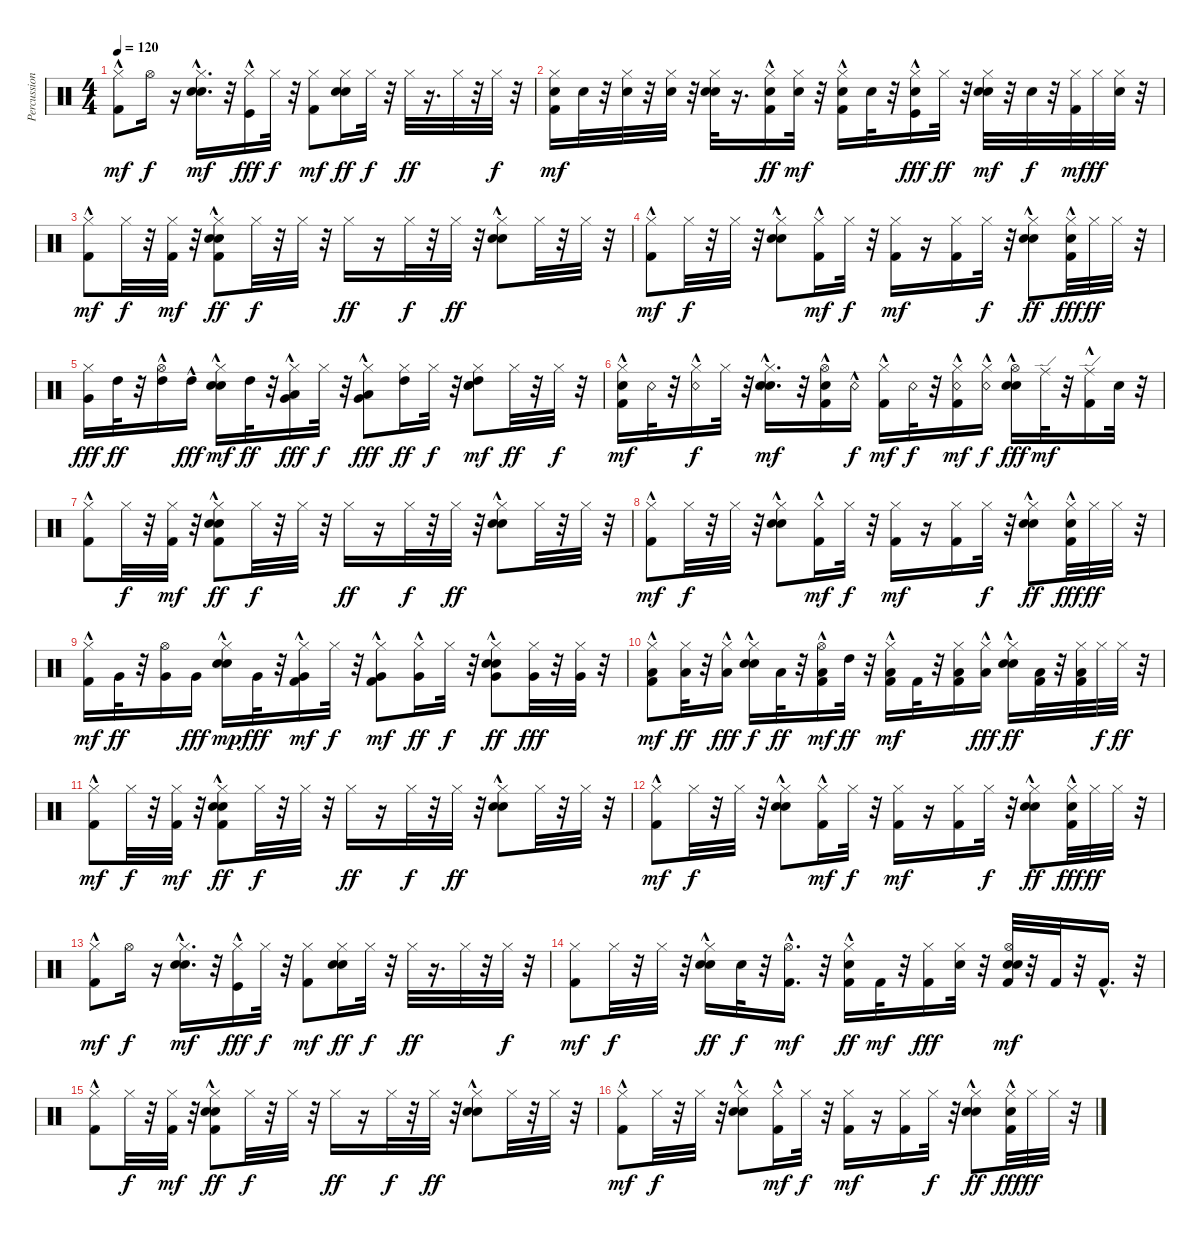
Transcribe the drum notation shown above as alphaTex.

\track ("Percussion" "Percussion") {instrument percussion}
\staff {score}
\articulation defaults
\ts (4 4)
\tempo 120
\clef neutral
\ks c
("Kick (hit) 2" "Hi-Hat (closed)"{hac}).8{dy mf} "Hi-Hat (open)".16{dy f} r.16 ("Hand Clap (hit)"{hac} "Snare (hit) 2"{hac} "Hi-Hat (closed)").16{d dy mf} r.32 ("Kick (hit)"{hac} "Hi-Hat (closed)").16{dy fff} "Hi-Hat (closed)".32{dy f} r.32 ("Hi-Hat (closed)" "Kick (hit) 2").8{dy mf} ("Hand Clap (hit)" "Snare (hit) 2" "Hi-Hat (closed)").16{dy ff} "Hi-Hat (closed)".32{dy f} r.32 "Hi-Hat (closed)".32{dy ff} r.16{d} "Hi-Hat (closed)".32 r.32 "Hi-Hat (closed)".32{dy f} r.32 |
("Hi-Hat (closed)" "Kick (hit) 2" "Electric Snare (hit)").16{dy mf} "Electric Snare (hit)".32 r.32 ("Electric Snare (hit)" "Hi-Hat (closed)").32 r.32 ("Electric Snare (hit)" "Hi-Hat (closed)").32 r.32 ("Electric Snare (hit)" "Hi-Hat (closed)" "Hand Clap (hit)").32 r.16{d} ("Kick (hit) 2"{hac} "Hi-Hat (closed)" "Electric Snare (hit)").16{dy ff} ("Hi-Hat (closed)" "Electric Snare (hit)").32{dy mf} r.32 ("Hi-Hat (closed)" "Kick (hit) 2"{hac} "Electric Snare (hit)").16 "Electric Snare (hit)".32 r.32 ("Kick (hit)"{hac} "Electric Snare (hit)" "Hi-Hat (closed)").16{dy fff} "Hi-Hat (closed)".32{dy ff} r.32 ("Hand Clap (hit)" "Hi-Hat (closed)" "Electric Snare (hit)").32{dy mf} r.32 "Electric Snare (hit)".32{dy f} r.32 ("Hi-Hat (closed)" "Kick (hit) 2").32{dy mf} "Hi-Hat (closed)".32{dy ff} ("Hi-Hat (closed)" "Electric Snare (hit)").32 r.32 |
("Hi-Hat (closed)"{hac} "Kick (hit) 2").8{dy mf} "Hi-Hat (closed)".32{dy f} r.32 ("Kick (hit) 2" "Hi-Hat (closed)").32{dy mf} r.32 ("Kick (hit) 2"{hac} "Hi-Hat (closed)"{hac} "Hand Clap (hit)"{hac} "Snare (hit) 2"{hac}).8{dy ff} "Hi-Hat (closed)".32{dy f} r.32 "Hi-Hat (closed)".32 r.32 "Hi-Hat (closed)".16{dy ff} r.16 "Hi-Hat (closed)".32{dy f} r.32 "Hi-Hat (closed)".32{dy ff} r.32 ("Hi-Hat (closed)" "Hand Clap (hit)"{hac} "Snare (hit) 2"{hac}).8 "Hi-Hat (closed)".32 r.32 "Hi-Hat (closed)".32 r.32 |
("Hi-Hat (closed)"{hac} "Kick (hit) 2").8{dy mf} "Hi-Hat (closed)".32{dy f} r.32 "Hi-Hat (closed)".32 r.32 ("Hi-Hat (closed)" "Hand Clap (hit)"{hac} "Snare (hit) 2"{hac}).8 ("Kick (hit) 2"{hac} "Hi-Hat (closed)").16{dy mf} "Hi-Hat (closed)".32{dy f} r.32 ("Hi-Hat (closed)" "Kick (hit) 2").16{dy mf} r.16 ("Kick (hit) 2" "Hi-Hat (closed)").16 "Hi-Hat (closed)".32{dy f} r.32 ("Hi-Hat (closed)" "Hand Clap (hit)"{hac} "Snare (hit) 2"{hac}).8{dy ff} ("Hi-Hat (closed)" "Kick (hit) 2"{hac} "Electric Snare (hit)").32{dy fff} "Hi-Hat (closed)".32{dy ff} "Hi-Hat (closed)".32 r.32 |
("Hi-Hat (closed)" "Very Low Tom (hit)").16{dy fff} "High Tom (hit)".32{dy ff} r.32 ("High Tom (hit)" "Hi-Hat (open)"{hac}).16 "High Tom (hit)"{hac}.16{dy fff} ("Hand Clap (hit)"{hac} "Snare (hit) 2"{hac} "Hi-Hat (closed)").16{dy mf} "High Tom (hit)".32{dy ff} r.32 ("Low Floor Tom (hit)"{hac} "Very Low Tom (hit)" "Hi-Hat (closed)").16{dy fff} "Hi-Hat (closed)".32{dy f} r.32 ("Low Tom (hit)"{hac} "Hi-Hat (closed)" "Very Low Tom (hit)"{hac}).8{dy fff} ("High Tom (hit)" "Hi-Hat (closed)").16{dy ff} "Hi-Hat (closed)".32{dy f} r.32 ("High Tom (hit)" "Electric Snare (hit)" "Hand Clap (hit)" "Hi-Hat (closed)").8{dy mf} "Hi-Hat (closed)".32{dy ff} r.32 "Hi-Hat (closed)".32{dy f} r.32 |
("Snare (hit)" "Kick (hit) 2" "Hi-Hat (closed)"{hac}).16{dy mf} "Snare (rim shot)".32 r.32 ("Hi-Hat (closed)" "Snare (rim shot)"{hac}).16{dy f} "Hi-Hat (closed)".32 r.32 ("Hand Clap (hit)"{hac} "Snare (hit) 2"{hac} "Hi-Hat (closed)"{hac} "Snare (rim shot)"{hac}).16{d dy mf} r.32 ("Kick (hit) 2"{hac} "Hi-Hat (open)" "Snare (hit)").16 "Snare (rim shot)"{hac}.16{dy f} ("Kick (hit) 2"{hac} "Hi-Hat (closed)"{hac}).16{dy mf} "Snare (rim shot)".32{dy f} r.32 ("Kick (hit) 2"{hac} "Snare (rim shot)" "Hi-Hat (closed)").16{dy mf} ("Snare (rim shot)"{hac} "Hi-Hat (closed)").16{dy f} ("Hi-Hat (open)" "Hand Clap (hit)"{hac} "Snare (hit) 2"{hac}).16{dy fff} "Ride (edge)".32{dy mf} r.32 ("Ride (edge)" "Kick (hit) 2"{hac}).16 "Snare (hit)".32 r.32 |
("Hi-Hat (closed)"{hac} "Kick (hit) 2").8 "Hi-Hat (closed)".32{dy f} r.32 ("Kick (hit) 2" "Hi-Hat (closed)").32{dy mf} r.32 ("Kick (hit) 2"{hac} "Hi-Hat (closed)"{hac} "Hand Clap (hit)"{hac} "Snare (hit) 2"{hac}).8{dy ff} "Hi-Hat (closed)".32{dy f} r.32 "Hi-Hat (closed)".32 r.32 "Hi-Hat (closed)".16{dy ff} r.16 "Hi-Hat (closed)".32{dy f} r.32 "Hi-Hat (closed)".32{dy ff} r.32 ("Hi-Hat (closed)" "Hand Clap (hit)"{hac} "Snare (hit) 2"{hac}).8 "Hi-Hat (closed)".32 r.32 "Hi-Hat (closed)".32 r.32 |
("Hi-Hat (closed)"{hac} "Kick (hit) 2").8{dy mf} "Hi-Hat (closed)".32{dy f} r.32 "Hi-Hat (closed)".32 r.32 ("Hi-Hat (closed)" "Hand Clap (hit)"{hac} "Snare (hit) 2"{hac}).8 ("Kick (hit) 2"{hac} "Hi-Hat (closed)").16{dy mf} "Hi-Hat (closed)".32{dy f} r.32 ("Hi-Hat (closed)" "Kick (hit) 2").16{dy mf} r.16 ("Kick (hit) 2" "Hi-Hat (closed)").16 "Hi-Hat (closed)".32{dy f} r.32 ("Hi-Hat (closed)" "Hand Clap (hit)"{hac} "Snare (hit) 2"{hac}).8{dy ff} ("Hi-Hat (closed)" "Kick (hit) 2"{hac} "Electric Snare (hit)").32{dy fff} "Hi-Hat (closed)".32{dy ff} "Hi-Hat (closed)".32 r.32 |
("Hi-Hat (closed)"{hac} "Kick (hit) 2").16{dy mf} "Very Low Tom (hit)".32{dy ff} r.32 ("Very Low Tom (hit)" "Hi-Hat (open)").16 "Very Low Tom (hit)".16{dy fff} ("Snare (hit) 2" "Hand Clap (hit)" "Hi-Hat (closed)"{hac}).16{dy mp} "Very Low Tom (hit)".32{dy fff} r.32 ("Very Low Tom (hit)"{hac} "Kick (hit) 2"{hac} "Hi-Hat (closed)").16{dy mf} "Hi-Hat (closed)".32{dy f} r.32 ("Very Low Tom (hit)"{hac} "Hi-Hat (closed)" "Kick (hit) 2"{hac}).8{dy mf} ("Very Low Tom (hit)"{hac} "Hi-Hat (closed)").16{dy ff} "Hi-Hat (closed)".32{dy f} r.32 ("Very Low Tom (hit)"{hac} "Hand Clap (hit)"{hac} "Electric Snare (hit)"{hac} "Hi-Hat (closed)").8{dy ff} ("Very Low Tom (hit)" "Hi-Hat (closed)").32{dy fff} r.32 ("Very Low Tom (hit)" "Hi-Hat (closed)").32 r.32 |
("Hi-Hat (closed)"{hac} "Low Tom (hit)" "Kick (hit) 2").8{dy mf} ("Low Tom (hit)" "Hi-Hat (closed)").32{dy ff} r.32 ("Low Tom (hit)"{hac} "Hi-Hat (closed)").16{dy fff} ("Hand Clap (hit)"{hac} "Electric Snare (hit)"{hac} "Hi-Hat (closed)"{hac}).16{dy f} "Low Tom (hit)".32{dy ff} r.32 ("Low Floor Tom (hit)" "Kick (hit) 2"{hac} "Hi-Hat (open)").16{dy mf} "High Tom (hit)".32{dy ff} r.32 ("Low Tom (hit)"{hac} "Kick (hit) 2" "Hi-Hat (closed)"{hac}).16{dy mf} "Kick (hit) 2".32 r.32 ("Low Tom (hit)" "Kick (hit) 2" "Hi-Hat (closed)").16 ("Low Tom (hit)"{hac} "Hi-Hat (closed)").16{dy fff} ("Hand Clap (hit)"{hac} "Snare (hit) 2"{hac} "Hi-Hat (closed)").16{dy ff} ("Kick (hit) 2" "Low Tom (hit)").32 r.32 ("Low Floor Tom (hit)" "Kick (hit) 2" "Hi-Hat (closed)").32 "Hi-Hat (closed)".32{dy f} "Hi-Hat (closed)".32{dy ff} r.32 |
("Hi-Hat (closed)"{hac} "Kick (hit) 2").8{dy mf} "Hi-Hat (closed)".32{dy f} r.32 ("Kick (hit) 2" "Hi-Hat (closed)").32{dy mf} r.32 ("Kick (hit) 2"{hac} "Hi-Hat (closed)"{hac} "Hand Clap (hit)"{hac} "Snare (hit) 2"{hac}).8{dy ff} "Hi-Hat (closed)".32{dy f} r.32 "Hi-Hat (closed)".32 r.32 "Hi-Hat (closed)".16{dy ff} r.16 "Hi-Hat (closed)".32{dy f} r.32 "Hi-Hat (closed)".32{dy ff} r.32 ("Hi-Hat (closed)" "Hand Clap (hit)"{hac} "Snare (hit) 2"{hac}).8 "Hi-Hat (closed)".32 r.32 "Hi-Hat (closed)".32 r.32 |
("Hi-Hat (closed)"{hac} "Kick (hit) 2").8{dy mf} "Hi-Hat (closed)".32{dy f} r.32 "Hi-Hat (closed)".32 r.32 ("Hi-Hat (closed)" "Hand Clap (hit)"{hac} "Snare (hit) 2"{hac}).8 ("Kick (hit) 2"{hac} "Hi-Hat (closed)").16{dy mf} "Hi-Hat (closed)".32{dy f} r.32 ("Hi-Hat (closed)" "Kick (hit) 2").16{dy mf} r.16 ("Kick (hit) 2" "Hi-Hat (closed)").16 "Hi-Hat (closed)".32{dy f} r.32 ("Hi-Hat (closed)" "Hand Clap (hit)"{hac} "Snare (hit) 2"{hac}).8{dy ff} ("Hi-Hat (closed)" "Kick (hit) 2"{hac} "Electric Snare (hit)").32{dy fff} "Hi-Hat (closed)".32{dy ff} "Hi-Hat (closed)".32 r.32 |
("Kick (hit) 2" "Hi-Hat (closed)"{hac}).8{dy mf} "Hi-Hat (open)".16{dy f} r.16 ("Hand Clap (hit)"{hac} "Snare (hit) 2"{hac} "Hi-Hat (closed)").16{d dy mf} r.32 ("Kick (hit)"{hac} "Hi-Hat (closed)").16{dy fff} "Hi-Hat (closed)".32{dy f} r.32 ("Hi-Hat (closed)" "Kick (hit) 2").8{dy mf} ("Hand Clap (hit)" "Snare (hit) 2" "Hi-Hat (closed)").16{dy ff} "Hi-Hat (closed)".32{dy f} r.32 "Hi-Hat (closed)".32{dy ff} r.16{d} "Hi-Hat (closed)".32 r.32 "Hi-Hat (closed)".32{dy f} r.32 |
("Kick (hit) 2" "Hi-Hat (closed)").8{dy mf} "Hi-Hat (closed)".32{dy f} r.32 "Hi-Hat (closed)".32 r.32 ("Hi-Hat (closed)"{hac} "Hand Clap (hit)" "Snare (hit) 2").16{dy ff} "Electric Snare (hit)".32{dy f} r.32 ("Kick (hit) 2"{hac} "Hi-Hat (open)").16{d dy mf} r.32 ("Electric Snare (hit)" "Kick (hit) 2" "Hi-Hat (closed)"{hac}).16{dy ff} "Kick (hit) 2".32{dy mf} r.32 ("Kick (hit) 2" "Hi-Hat (closed)").16{dy fff} ("Electric Snare (hit)" "Hi-Hat (closed)").32 r.32 ("Hand Clap (hit)" "Snare (hit) 2" "Kick (hit) 2" "Hi-Hat (open)").32{dy mf} r.32 "Kick (hit) 2".32 r.32 "Kick (hit) 2"{hac}.16{d} r.32 |
("Hi-Hat (closed)"{hac} "Kick (hit) 2").8 "Hi-Hat (closed)".32{dy f} r.32 ("Kick (hit) 2" "Hi-Hat (closed)").32{dy mf} r.32 ("Kick (hit) 2"{hac} "Hi-Hat (closed)"{hac} "Hand Clap (hit)"{hac} "Snare (hit) 2"{hac}).8{dy ff} "Hi-Hat (closed)".32{dy f} r.32 "Hi-Hat (closed)".32 r.32 "Hi-Hat (closed)".16{dy ff} r.16 "Hi-Hat (closed)".32{dy f} r.32 "Hi-Hat (closed)".32{dy ff} r.32 ("Hi-Hat (closed)" "Hand Clap (hit)"{hac} "Snare (hit) 2"{hac}).8 "Hi-Hat (closed)".32 r.32 "Hi-Hat (closed)".32 r.32 |
("Hi-Hat (closed)"{hac} "Kick (hit) 2").8{dy mf} "Hi-Hat (closed)".32{dy f} r.32 "Hi-Hat (closed)".32 r.32 ("Hi-Hat (closed)" "Hand Clap (hit)"{hac} "Snare (hit) 2"{hac}).8 ("Kick (hit) 2"{hac} "Hi-Hat (closed)").16{dy mf} "Hi-Hat (closed)".32{dy f} r.32 ("Hi-Hat (closed)" "Kick (hit) 2").16{dy mf} r.16 ("Kick (hit) 2" "Hi-Hat (closed)").16 "Hi-Hat (closed)".32{dy f} r.32 ("Hi-Hat (closed)" "Hand Clap (hit)"{hac} "Snare (hit) 2"{hac}).8{dy ff} ("Hi-Hat (closed)" "Kick (hit) 2"{hac} "Electric Snare (hit)").32{dy fff} "Hi-Hat (closed)".32{dy ff} "Hi-Hat (closed)".32 r.32
